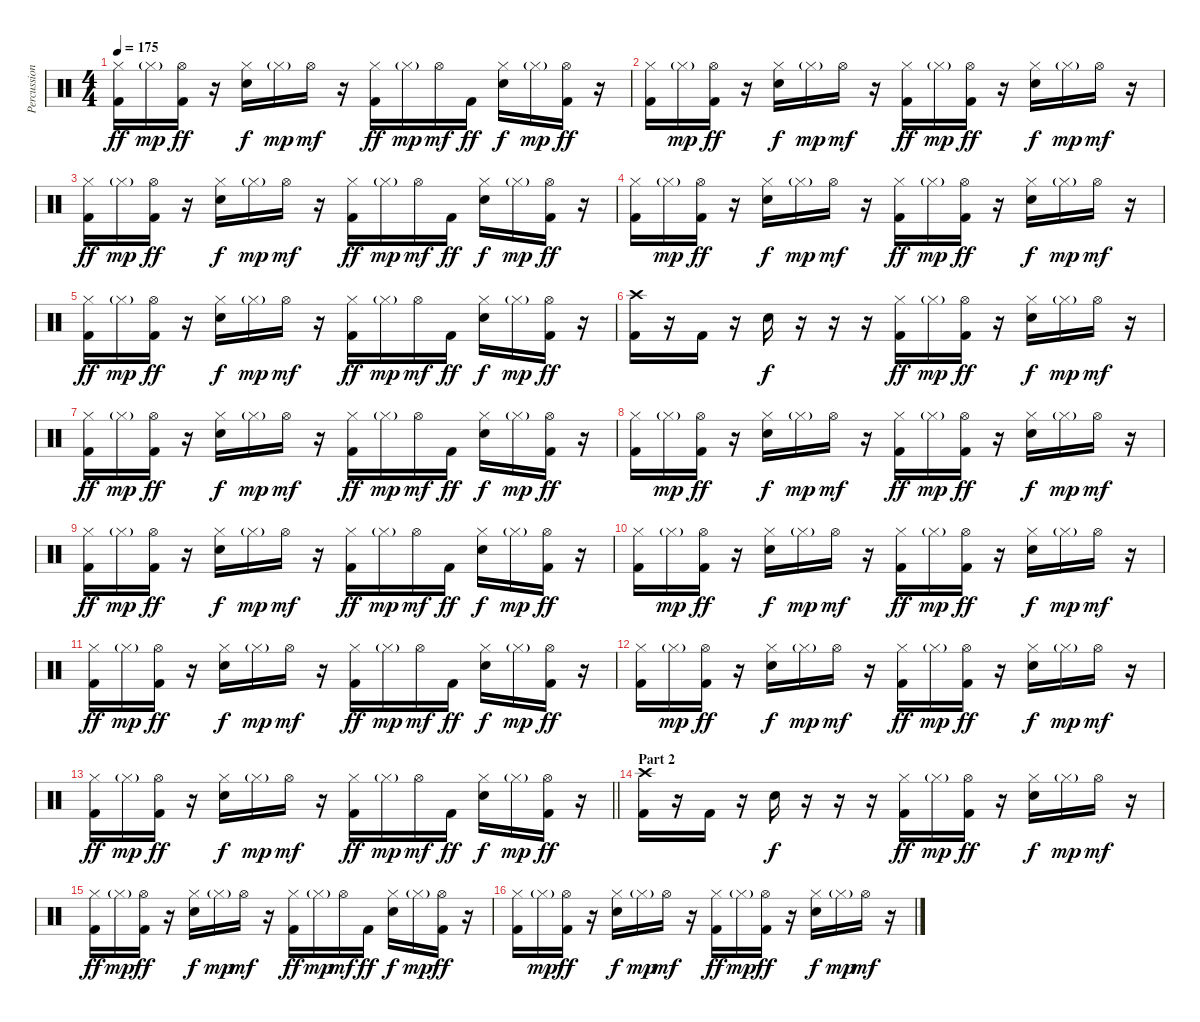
\track ("Percussion" "Percussion") {instrument percussion}
\staff {score}
\articulation defaults
\ts (4 4)
\tempo 175
\clef neutral
\ks c
("Hi-Hat (closed)" "Kick (hit) 2").16{dy ff} "Hi-Hat (closed)"{g}.16{dy mp} ("Hi-Hat (open)" "Kick (hit) 2").16{dy ff} r.16 ("Hi-Hat (closed)" "Electric Snare (hit)").16{dy f} "Hi-Hat (closed)"{g}.16{dy mp} "Hi-Hat (open)".16{dy mf} r.16 ("Hi-Hat (closed)" "Kick (hit) 2").16{dy ff} "Hi-Hat (closed)"{g}.16{dy mp} "Hi-Hat (open)".16{dy mf} "Kick (hit) 2".16{dy ff} ("Hi-Hat (closed)" "Electric Snare (hit)").16{dy f} "Hi-Hat (closed)"{g}.16{dy mp} ("Hi-Hat (open)" "Kick (hit) 2").16{dy ff} r.16 |
("Hi-Hat (closed)" "Kick (hit) 2").16 "Hi-Hat (closed)"{g}.16{dy mp} ("Hi-Hat (open)" "Kick (hit) 2").16{dy ff} r.16 ("Hi-Hat (closed)" "Electric Snare (hit)").16{dy f} "Hi-Hat (closed)"{g}.16{dy mp} "Hi-Hat (open)".16{dy mf} r.16 ("Hi-Hat (closed)" "Kick (hit) 2").16{dy ff} "Hi-Hat (closed)"{g}.16{dy mp} ("Hi-Hat (open)" "Kick (hit) 2").16{dy ff} r.16 ("Hi-Hat (closed)" "Electric Snare (hit)").16{dy f} "Hi-Hat (closed)"{g}.16{dy mp} "Hi-Hat (open)".16{dy mf} r.16 |
("Hi-Hat (closed)" "Kick (hit) 2").16{dy ff} "Hi-Hat (closed)"{g}.16{dy mp} ("Hi-Hat (open)" "Kick (hit) 2").16{dy ff} r.16 ("Hi-Hat (closed)" "Electric Snare (hit)").16{dy f} "Hi-Hat (closed)"{g}.16{dy mp} "Hi-Hat (open)".16{dy mf} r.16 ("Hi-Hat (closed)" "Kick (hit) 2").16{dy ff} "Hi-Hat (closed)"{g}.16{dy mp} "Hi-Hat (open)".16{dy mf} "Kick (hit) 2".16{dy ff} ("Hi-Hat (closed)" "Electric Snare (hit)").16{dy f} "Hi-Hat (closed)"{g}.16{dy mp} ("Hi-Hat (open)" "Kick (hit) 2").16{dy ff} r.16 |
("Hi-Hat (closed)" "Kick (hit) 2").16 "Hi-Hat (closed)"{g}.16{dy mp} ("Hi-Hat (open)" "Kick (hit) 2").16{dy ff} r.16 ("Hi-Hat (closed)" "Electric Snare (hit)").16{dy f} "Hi-Hat (closed)"{g}.16{dy mp} "Hi-Hat (open)".16{dy mf} r.16 ("Hi-Hat (closed)" "Kick (hit) 2").16{dy ff} "Hi-Hat (closed)"{g}.16{dy mp} ("Hi-Hat (open)" "Kick (hit) 2").16{dy ff} r.16 ("Hi-Hat (closed)" "Electric Snare (hit)").16{dy f} "Hi-Hat (closed)"{g}.16{dy mp} "Hi-Hat (open)".16{dy mf} r.16 |
("Hi-Hat (closed)" "Kick (hit) 2").16{dy ff} "Hi-Hat (closed)"{g}.16{dy mp} ("Hi-Hat (open)" "Kick (hit) 2").16{dy ff} r.16 ("Hi-Hat (closed)" "Electric Snare (hit)").16{dy f} "Hi-Hat (closed)"{g}.16{dy mp} "Hi-Hat (open)".16{dy mf} r.16 ("Hi-Hat (closed)" "Kick (hit) 2").16{dy ff} "Hi-Hat (closed)"{g}.16{dy mp} "Hi-Hat (open)".16{dy mf} "Kick (hit) 2".16{dy ff} ("Hi-Hat (closed)" "Electric Snare (hit)").16{dy f} "Hi-Hat (closed)"{g}.16{dy mp} ("Hi-Hat (open)" "Kick (hit) 2").16{dy ff} r.16 |
("Crash high (hit)" "Kick (hit) 2").16 r.16 "Kick (hit) 2".16 r.16 "Electric Snare (hit)".16{dy f} r.16 r.16 r.16 ("Hi-Hat (closed)" "Kick (hit) 2").16{dy ff} "Hi-Hat (closed)"{g}.16{dy mp} ("Hi-Hat (open)" "Kick (hit) 2").16{dy ff} r.16 ("Hi-Hat (closed)" "Electric Snare (hit)").16{dy f} "Hi-Hat (closed)"{g}.16{dy mp} "Hi-Hat (open)".16{dy mf} r.16 |
("Hi-Hat (closed)" "Kick (hit) 2").16{dy ff} "Hi-Hat (closed)"{g}.16{dy mp} ("Hi-Hat (open)" "Kick (hit) 2").16{dy ff} r.16 ("Hi-Hat (closed)" "Electric Snare (hit)").16{dy f} "Hi-Hat (closed)"{g}.16{dy mp} "Hi-Hat (open)".16{dy mf} r.16 ("Hi-Hat (closed)" "Kick (hit) 2").16{dy ff} "Hi-Hat (closed)"{g}.16{dy mp} "Hi-Hat (open)".16{dy mf} "Kick (hit) 2".16{dy ff} ("Hi-Hat (closed)" "Electric Snare (hit)").16{dy f} "Hi-Hat (closed)"{g}.16{dy mp} ("Hi-Hat (open)" "Kick (hit) 2").16{dy ff} r.16 |
("Hi-Hat (closed)" "Kick (hit) 2").16 "Hi-Hat (closed)"{g}.16{dy mp} ("Hi-Hat (open)" "Kick (hit) 2").16{dy ff} r.16 ("Hi-Hat (closed)" "Electric Snare (hit)").16{dy f} "Hi-Hat (closed)"{g}.16{dy mp} "Hi-Hat (open)".16{dy mf} r.16 ("Hi-Hat (closed)" "Kick (hit) 2").16{dy ff} "Hi-Hat (closed)"{g}.16{dy mp} ("Hi-Hat (open)" "Kick (hit) 2").16{dy ff} r.16 ("Hi-Hat (closed)" "Electric Snare (hit)").16{dy f} "Hi-Hat (closed)"{g}.16{dy mp} "Hi-Hat (open)".16{dy mf} r.16 |
("Hi-Hat (closed)" "Kick (hit) 2").16{dy ff} "Hi-Hat (closed)"{g}.16{dy mp} ("Hi-Hat (open)" "Kick (hit) 2").16{dy ff} r.16 ("Hi-Hat (closed)" "Electric Snare (hit)").16{dy f} "Hi-Hat (closed)"{g}.16{dy mp} "Hi-Hat (open)".16{dy mf} r.16 ("Hi-Hat (closed)" "Kick (hit) 2").16{dy ff} "Hi-Hat (closed)"{g}.16{dy mp} "Hi-Hat (open)".16{dy mf} "Kick (hit) 2".16{dy ff} ("Hi-Hat (closed)" "Electric Snare (hit)").16{dy f} "Hi-Hat (closed)"{g}.16{dy mp} ("Hi-Hat (open)" "Kick (hit) 2").16{dy ff} r.16 |
("Hi-Hat (closed)" "Kick (hit) 2").16 "Hi-Hat (closed)"{g}.16{dy mp} ("Hi-Hat (open)" "Kick (hit) 2").16{dy ff} r.16 ("Hi-Hat (closed)" "Electric Snare (hit)").16{dy f} "Hi-Hat (closed)"{g}.16{dy mp} "Hi-Hat (open)".16{dy mf} r.16 ("Hi-Hat (closed)" "Kick (hit) 2").16{dy ff} "Hi-Hat (closed)"{g}.16{dy mp} ("Hi-Hat (open)" "Kick (hit) 2").16{dy ff} r.16 ("Hi-Hat (closed)" "Electric Snare (hit)").16{dy f} "Hi-Hat (closed)"{g}.16{dy mp} "Hi-Hat (open)".16{dy mf} r.16 |
("Hi-Hat (closed)" "Kick (hit) 2").16{dy ff} "Hi-Hat (closed)"{g}.16{dy mp} ("Hi-Hat (open)" "Kick (hit) 2").16{dy ff} r.16 ("Hi-Hat (closed)" "Electric Snare (hit)").16{dy f} "Hi-Hat (closed)"{g}.16{dy mp} "Hi-Hat (open)".16{dy mf} r.16 ("Hi-Hat (closed)" "Kick (hit) 2").16{dy ff} "Hi-Hat (closed)"{g}.16{dy mp} "Hi-Hat (open)".16{dy mf} "Kick (hit) 2".16{dy ff} ("Hi-Hat (closed)" "Electric Snare (hit)").16{dy f} "Hi-Hat (closed)"{g}.16{dy mp} ("Hi-Hat (open)" "Kick (hit) 2").16{dy ff} r.16 |
("Hi-Hat (closed)" "Kick (hit) 2").16 "Hi-Hat (closed)"{g}.16{dy mp} ("Hi-Hat (open)" "Kick (hit) 2").16{dy ff} r.16 ("Hi-Hat (closed)" "Electric Snare (hit)").16{dy f} "Hi-Hat (closed)"{g}.16{dy mp} "Hi-Hat (open)".16{dy mf} r.16 ("Hi-Hat (closed)" "Kick (hit) 2").16{dy ff} "Hi-Hat (closed)"{g}.16{dy mp} ("Hi-Hat (open)" "Kick (hit) 2").16{dy ff} r.16 ("Hi-Hat (closed)" "Electric Snare (hit)").16{dy f} "Hi-Hat (closed)"{g}.16{dy mp} "Hi-Hat (open)".16{dy mf} r.16 |
\barLineRight lightlight
("Hi-Hat (closed)" "Kick (hit) 2").16{dy ff} "Hi-Hat (closed)"{g}.16{dy mp} ("Hi-Hat (open)" "Kick (hit) 2").16{dy ff} r.16 ("Hi-Hat (closed)" "Electric Snare (hit)").16{dy f} "Hi-Hat (closed)"{g}.16{dy mp} "Hi-Hat (open)".16{dy mf} r.16 ("Hi-Hat (closed)" "Kick (hit) 2").16{dy ff} "Hi-Hat (closed)"{g}.16{dy mp} "Hi-Hat (open)".16{dy mf} "Kick (hit) 2".16{dy ff} ("Hi-Hat (closed)" "Electric Snare (hit)").16{dy f} "Hi-Hat (closed)"{g}.16{dy mp} ("Hi-Hat (open)" "Kick (hit) 2").16{dy ff} r.16 |
\section ("" "Part 2")
("Crash high (hit)" "Kick (hit) 2").16 r.16 "Kick (hit) 2".16 r.16 "Electric Snare (hit)".16{dy f} r.16 r.16 r.16 ("Hi-Hat (closed)" "Kick (hit) 2").16{dy ff} "Hi-Hat (closed)"{g}.16{dy mp} ("Hi-Hat (open)" "Kick (hit) 2").16{dy ff} r.16 ("Hi-Hat (closed)" "Electric Snare (hit)").16{dy f} "Hi-Hat (closed)"{g}.16{dy mp} "Hi-Hat (open)".16{dy mf} r.16 |
("Hi-Hat (closed)" "Kick (hit) 2").16{dy ff} "Hi-Hat (closed)"{g}.16{dy mp} ("Hi-Hat (open)" "Kick (hit) 2").16{dy ff} r.16 ("Hi-Hat (closed)" "Electric Snare (hit)").16{dy f} "Hi-Hat (closed)"{g}.16{dy mp} "Hi-Hat (open)".16{dy mf} r.16 ("Hi-Hat (closed)" "Kick (hit) 2").16{dy ff} "Hi-Hat (closed)"{g}.16{dy mp} "Hi-Hat (open)".16{dy mf} "Kick (hit) 2".16{dy ff} ("Hi-Hat (closed)" "Electric Snare (hit)").16{dy f} "Hi-Hat (closed)"{g}.16{dy mp} ("Hi-Hat (open)" "Kick (hit) 2").16{dy ff} r.16 |
("Hi-Hat (closed)" "Kick (hit) 2").16 "Hi-Hat (closed)"{g}.16{dy mp} ("Hi-Hat (open)" "Kick (hit) 2").16{dy ff} r.16 ("Hi-Hat (closed)" "Electric Snare (hit)").16{dy f} "Hi-Hat (closed)"{g}.16{dy mp} "Hi-Hat (open)".16{dy mf} r.16 ("Hi-Hat (closed)" "Kick (hit) 2").16{dy ff} "Hi-Hat (closed)"{g}.16{dy mp} ("Hi-Hat (open)" "Kick (hit) 2").16{dy ff} r.16 ("Hi-Hat (closed)" "Electric Snare (hit)").16{dy f} "Hi-Hat (closed)"{g}.16{dy mp} "Hi-Hat (open)".16{dy mf} r.16
